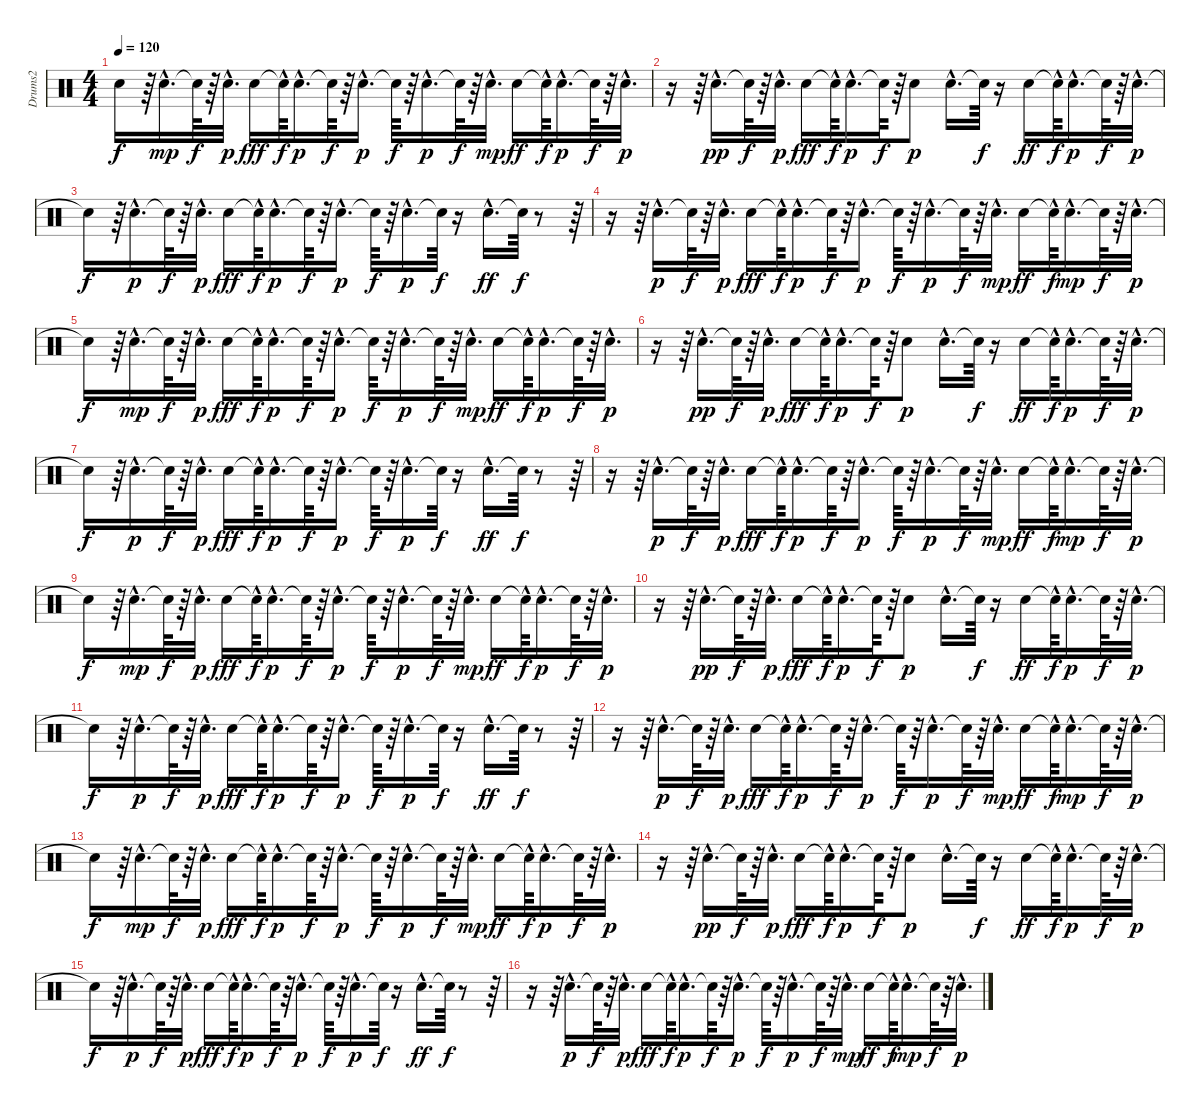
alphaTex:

\track ("Drums2" "Drums2") {instrument percussion}
\staff {score}
\articulation defaults
\ts (4 4)
\tempo 120
\clef neutral
\ks c "Snare (hit)"{t}.16{dy f}
r.64 "Electric Snare (hit)"{hac}.16{d dy mp} "Snare (hit)"{t}.64{dy f} r.64 "Electric Snare (hit)"{hac}.32{d dy p} "Snare (hit) 2".16{dy fff} "Snare (hit)"{hac t}.64{dy f} "Electric Snare (hit)"{hac}.16{d dy p} "Snare (hit)"{t}.64{dy f} r.64 "Electric Snare (hit)"{hac}.16{d dy p} "Snare (hit)"{t}.64{dy f} r.64 "Electric Snare (hit)"{hac}.16{d dy p} "Snare (hit)"{t}.64{dy f} r.64 "Electric Snare (hit)"{hac}.32{d dy mp} "Snare (hit) 2".16{dy ff} "Snare (hit)"{hac t}.64{dy f} "Electric Snare (hit)"{hac}.16{d dy p} "Snare (hit)"{t}.64{dy f} r.64 "Electric Snare (hit)"{hac}.32{d dy p} |
r.16 r.64 "Electric Snare (hit)"{hac}.16{d dy pp} "Snare (hit)"{t}.64{dy f} r.64 "Electric Snare (hit)"{hac}.32{d dy p} "Snare (hit) 2".16{dy fff} "Snare (hit)"{hac t}.64{dy f} "Electric Snare (hit)"{hac}.16{d dy p} "Snare (hit)"{t}.64{dy f} r.64 "Electric Snare (hit)".8{dy p} "Electric Snare (hit)"{hac}.16{d} "Snare (hit)"{t}.64{dy f} r.16 "Snare (hit) 2".16{dy ff} "Snare (hit)"{hac t}.64{dy f} "Electric Snare (hit)"{hac}.16{d dy p} "Snare (hit)"{t}.64{dy f} r.64 "Electric Snare (hit)"{hac}.32{d dy p} |
"Snare (hit)"{t}.16{dy f} r.64 "Electric Snare (hit)"{hac}.16{d dy p} "Snare (hit)"{t}.64{dy f} r.64 "Electric Snare (hit)"{hac}.32{d dy p} "Snare (hit) 2".16{dy fff} "Snare (hit)"{hac t}.64{dy f} "Electric Snare (hit)"{hac}.16{d dy p} "Snare (hit)"{t}.64{dy f} r.64 "Electric Snare (hit)"{hac}.16{d dy p} "Snare (hit)"{t}.64{dy f} r.64 "Electric Snare (hit)"{hac}.16{d dy p} "Snare (hit)"{t}.64{dy f} r.16 "Snare (hit) 2"{hac}.16{d dy ff} "Snare (hit)"{t}.64{dy f} r.8 r.64 |
r.16 r.64 "Electric Snare (hit)"{hac}.16{d dy p} "Snare (hit)"{t}.64{dy f} r.64 "Electric Snare (hit)"{hac}.32{d dy p} "Snare (hit) 2".16{dy fff} "Snare (hit)"{hac t}.64{dy f} "Electric Snare (hit)"{hac}.16{d dy p} "Snare (hit)"{t}.64{dy f} r.64 "Electric Snare (hit)"{hac}.16{d dy p} "Snare (hit)"{t}.64{dy f} r.64 "Electric Snare (hit)"{hac}.16{d dy p} "Snare (hit)"{t}.64{dy f} r.64 "Electric Snare (hit)"{hac}.32{d dy mp} "Snare (hit) 2".16{dy ff} "Snare (hit)"{hac t}.64{dy f} "Electric Snare (hit)"{hac}.16{d dy mp} "Snare (hit)"{t}.64{dy f} r.64 "Electric Snare (hit)"{hac}.32{d dy p} |
"Snare (hit)"{t}.16{dy f} r.64 "Electric Snare (hit)"{hac}.16{d dy mp} "Snare (hit)"{t}.64{dy f} r.64 "Electric Snare (hit)"{hac}.32{d dy p} "Snare (hit) 2".16{dy fff} "Snare (hit)"{hac t}.64{dy f} "Electric Snare (hit)"{hac}.16{d dy p} "Snare (hit)"{t}.64{dy f} r.64 "Electric Snare (hit)"{hac}.16{d dy p} "Snare (hit)"{t}.64{dy f} r.64 "Electric Snare (hit)"{hac}.16{d dy p} "Snare (hit)"{t}.64{dy f} r.64 "Electric Snare (hit)"{hac}.32{d dy mp} "Snare (hit) 2".16{dy ff} "Snare (hit)"{hac t}.64{dy f} "Electric Snare (hit)"{hac}.16{d dy p} "Snare (hit)"{t}.64{dy f} r.64 "Electric Snare (hit)"{hac}.32{d dy p} |
r.16 r.64 "Electric Snare (hit)"{hac}.16{d dy pp} "Snare (hit)"{t}.64{dy f} r.64 "Electric Snare (hit)"{hac}.32{d dy p} "Snare (hit) 2".16{dy fff} "Snare (hit)"{hac t}.64{dy f} "Electric Snare (hit)"{hac}.16{d dy p} "Snare (hit)"{t}.64{dy f} r.64 "Electric Snare (hit)".8{dy p} "Electric Snare (hit)"{hac}.16{d} "Snare (hit)"{t}.64{dy f} r.16 "Snare (hit) 2".16{dy ff} "Snare (hit)"{hac t}.64{dy f} "Electric Snare (hit)"{hac}.16{d dy p} "Snare (hit)"{t}.64{dy f} r.64 "Electric Snare (hit)"{hac}.32{d dy p} |
"Snare (hit)"{t}.16{dy f} r.64 "Electric Snare (hit)"{hac}.16{d dy p} "Snare (hit)"{t}.64{dy f} r.64 "Electric Snare (hit)"{hac}.32{d dy p} "Snare (hit) 2".16{dy fff} "Snare (hit)"{hac t}.64{dy f} "Electric Snare (hit)"{hac}.16{d dy p} "Snare (hit)"{t}.64{dy f} r.64 "Electric Snare (hit)"{hac}.16{d dy p} "Snare (hit)"{t}.64{dy f} r.64 "Electric Snare (hit)"{hac}.16{d dy p} "Snare (hit)"{t}.64{dy f} r.16 "Snare (hit) 2"{hac}.16{d dy ff} "Snare (hit)"{t}.64{dy f} r.8 r.64 |
r.16 r.64 "Electric Snare (hit)"{hac}.16{d dy p} "Snare (hit)"{t}.64{dy f} r.64 "Electric Snare (hit)"{hac}.32{d dy p} "Snare (hit) 2".16{dy fff} "Snare (hit)"{hac t}.64{dy f} "Electric Snare (hit)"{hac}.16{d dy p} "Snare (hit)"{t}.64{dy f} r.64 "Electric Snare (hit)"{hac}.16{d dy p} "Snare (hit)"{t}.64{dy f} r.64 "Electric Snare (hit)"{hac}.16{d dy p} "Snare (hit)"{t}.64{dy f} r.64 "Electric Snare (hit)"{hac}.32{d dy mp} "Snare (hit) 2".16{dy ff} "Snare (hit)"{hac t}.64{dy f} "Electric Snare (hit)"{hac}.16{d dy mp} "Snare (hit)"{t}.64{dy f} r.64 "Electric Snare (hit)"{hac}.32{d dy p} |
"Snare (hit)"{t}.16{dy f} r.64 "Electric Snare (hit)"{hac}.16{d dy mp} "Snare (hit)"{t}.64{dy f} r.64 "Electric Snare (hit)"{hac}.32{d dy p} "Snare (hit) 2".16{dy fff} "Snare (hit)"{hac t}.64{dy f} "Electric Snare (hit)"{hac}.16{d dy p} "Snare (hit)"{t}.64{dy f} r.64 "Electric Snare (hit)"{hac}.16{d dy p} "Snare (hit)"{t}.64{dy f} r.64 "Electric Snare (hit)"{hac}.16{d dy p} "Snare (hit)"{t}.64{dy f} r.64 "Electric Snare (hit)"{hac}.32{d dy mp} "Snare (hit) 2".16{dy ff} "Snare (hit)"{hac t}.64{dy f} "Electric Snare (hit)"{hac}.16{d dy p} "Snare (hit)"{t}.64{dy f} r.64 "Electric Snare (hit)"{hac}.32{d dy p} |
r.16 r.64 "Electric Snare (hit)"{hac}.16{d dy pp} "Snare (hit)"{t}.64{dy f} r.64 "Electric Snare (hit)"{hac}.32{d dy p} "Snare (hit) 2".16{dy fff} "Snare (hit)"{hac t}.64{dy f} "Electric Snare (hit)"{hac}.16{d dy p} "Snare (hit)"{t}.64{dy f} r.64 "Electric Snare (hit)".8{dy p} "Electric Snare (hit)"{hac}.16{d} "Snare (hit)"{t}.64{dy f} r.16 "Snare (hit) 2".16{dy ff} "Snare (hit)"{hac t}.64{dy f} "Electric Snare (hit)"{hac}.16{d dy p} "Snare (hit)"{t}.64{dy f} r.64 "Electric Snare (hit)"{hac}.32{d dy p} |
"Snare (hit)"{t}.16{dy f} r.64 "Electric Snare (hit)"{hac}.16{d dy p} "Snare (hit)"{t}.64{dy f} r.64 "Electric Snare (hit)"{hac}.32{d dy p} "Snare (hit) 2".16{dy fff} "Snare (hit)"{hac t}.64{dy f} "Electric Snare (hit)"{hac}.16{d dy p} "Snare (hit)"{t}.64{dy f} r.64 "Electric Snare (hit)"{hac}.16{d dy p} "Snare (hit)"{t}.64{dy f} r.64 "Electric Snare (hit)"{hac}.16{d dy p} "Snare (hit)"{t}.64{dy f} r.16 "Snare (hit) 2"{hac}.16{d dy ff} "Snare (hit)"{t}.64{dy f} r.8 r.64 |
r.16 r.64 "Electric Snare (hit)"{hac}.16{d dy p} "Snare (hit)"{t}.64{dy f} r.64 "Electric Snare (hit)"{hac}.32{d dy p} "Snare (hit) 2".16{dy fff} "Snare (hit)"{hac t}.64{dy f} "Electric Snare (hit)"{hac}.16{d dy p} "Snare (hit)"{t}.64{dy f} r.64 "Electric Snare (hit)"{hac}.16{d dy p} "Snare (hit)"{t}.64{dy f} r.64 "Electric Snare (hit)"{hac}.16{d dy p} "Snare (hit)"{t}.64{dy f} r.64 "Electric Snare (hit)"{hac}.32{d dy mp} "Snare (hit) 2".16{dy ff} "Snare (hit)"{hac t}.64{dy f} "Electric Snare (hit)"{hac}.16{d dy mp} "Snare (hit)"{t}.64{dy f} r.64 "Electric Snare (hit)"{hac}.32{d dy p} |
"Snare (hit)"{t}.16{dy f} r.64 "Electric Snare (hit)"{hac}.16{d dy mp} "Snare (hit)"{t}.64{dy f} r.64 "Electric Snare (hit)"{hac}.32{d dy p} "Snare (hit) 2".16{dy fff} "Snare (hit)"{hac t}.64{dy f} "Electric Snare (hit)"{hac}.16{d dy p} "Snare (hit)"{t}.64{dy f} r.64 "Electric Snare (hit)"{hac}.16{d dy p} "Snare (hit)"{t}.64{dy f} r.64 "Electric Snare (hit)"{hac}.16{d dy p} "Snare (hit)"{t}.64{dy f} r.64 "Electric Snare (hit)"{hac}.32{d dy mp} "Snare (hit) 2".16{dy ff} "Snare (hit)"{hac t}.64{dy f} "Electric Snare (hit)"{hac}.16{d dy p} "Snare (hit)"{t}.64{dy f} r.64 "Electric Snare (hit)"{hac}.32{d dy p} |
r.16 r.64 "Electric Snare (hit)"{hac}.16{d dy pp} "Snare (hit)"{t}.64{dy f} r.64 "Electric Snare (hit)"{hac}.32{d dy p} "Snare (hit) 2".16{dy fff} "Snare (hit)"{hac t}.64{dy f} "Electric Snare (hit)"{hac}.16{d dy p} "Snare (hit)"{t}.64{dy f} r.64 "Electric Snare (hit)".8{dy p} "Electric Snare (hit)"{hac}.16{d} "Snare (hit)"{t}.64{dy f} r.16 "Snare (hit) 2".16{dy ff} "Snare (hit)"{hac t}.64{dy f} "Electric Snare (hit)"{hac}.16{d dy p} "Snare (hit)"{t}.64{dy f} r.64 "Electric Snare (hit)"{hac}.32{d dy p} |
"Snare (hit)"{t}.16{dy f} r.64 "Electric Snare (hit)"{hac}.16{d dy p} "Snare (hit)"{t}.64{dy f} r.64 "Electric Snare (hit)"{hac}.32{d dy p} "Snare (hit) 2".16{dy fff} "Snare (hit)"{hac t}.64{dy f} "Electric Snare (hit)"{hac}.16{d dy p} "Snare (hit)"{t}.64{dy f} r.64 "Electric Snare (hit)"{hac}.16{d dy p} "Snare (hit)"{t}.64{dy f} r.64 "Electric Snare (hit)"{hac}.16{d dy p} "Snare (hit)"{t}.64{dy f} r.16 "Snare (hit) 2"{hac}.16{d dy ff} "Snare (hit)"{t}.64{dy f} r.8 r.64 |
r.16 r.64 "Electric Snare (hit)"{hac}.16{d dy p} "Snare (hit)"{t}.64{dy f} r.64 "Electric Snare (hit)"{hac}.32{d dy p} "Snare (hit) 2".16{dy fff} "Snare (hit)"{hac t}.64{dy f} "Electric Snare (hit)"{hac}.16{d dy p} "Snare (hit)"{t}.64{dy f} r.64 "Electric Snare (hit)"{hac}.16{d dy p} "Snare (hit)"{t}.64{dy f} r.64 "Electric Snare (hit)"{hac}.16{d dy p} "Snare (hit)"{t}.64{dy f} r.64 "Electric Snare (hit)"{hac}.32{d dy mp} "Snare (hit) 2".16{dy ff} "Snare (hit)"{hac t}.64{dy f} "Electric Snare (hit)"{hac}.16{d dy mp} "Snare (hit)"{t}.64{dy f} r.64 "Electric Snare (hit)"{hac}.32{d dy p}
